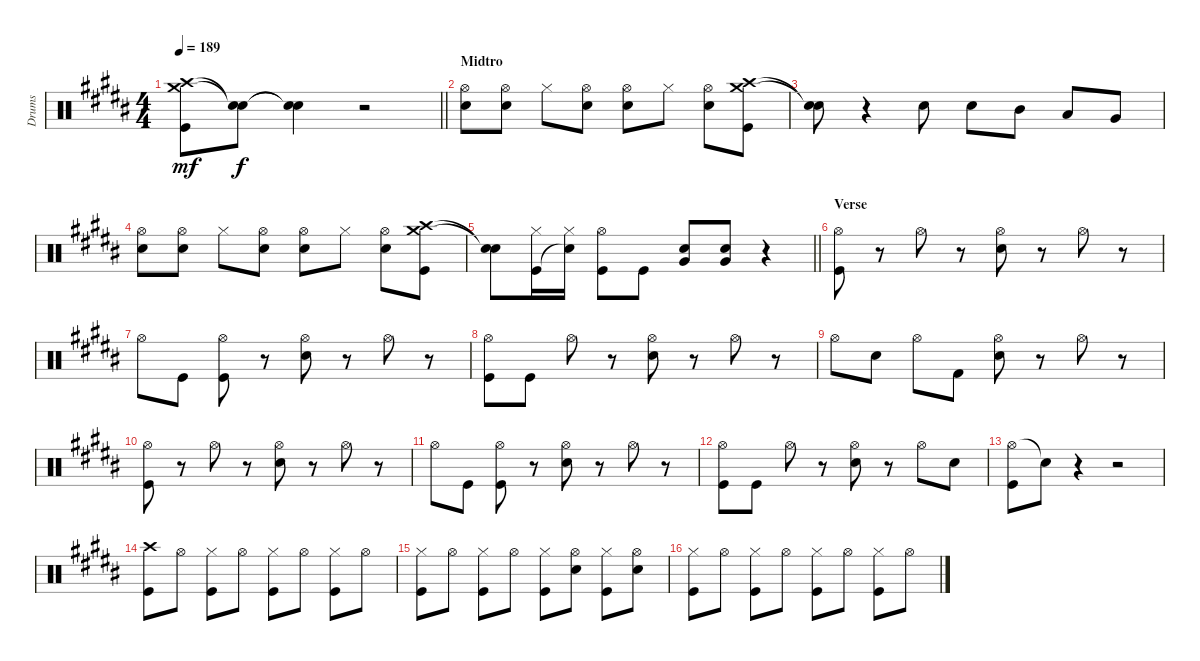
\track ("Drums" "Drums") {instrument percussion}
\staff {score}
\articulation defaults
\ts (4 4)
\tempo 189
\clef neutral
\barLineRight lightlight
\ks b
("Crash high (hit)" "Crash medium (hit)" "Kick (hit)").8{dy mf} ("Snare (hit)"{t} "Snare (hit)"{t}).8{dy f} ("Snare (hit)"{t} "Snare (hit)"{t}).4 r.2 |
\section ("" "Midtro")
("Hi-Hat (open)" "Snare (hit) 2").8 ("Hi-Hat (open)" "Snare (hit) 2").8 "Hi-Hat (closed)".8 ("Hi-Hat (open)" "Snare (hit) 2").8 ("Hi-Hat (open)" "Snare (hit) 2").8 "Hi-Hat (closed)".8 ("Hi-Hat (open)" "Snare (hit) 2").8 ("Crash high (hit)" "Crash medium (hit)" "Kick (hit)").8 |
("Snare (hit)"{t} "Snare (hit)"{t}).8 r.4 "Snare (hit) 2".8 "Snare (hit) 2".8 "Mid Tom (hit)".8 "Low Tom (hit)".8 "Very Low Tom (hit)".8 |
("Hi-Hat (open)" "Snare (hit) 2").8 ("Hi-Hat (open)" "Snare (hit) 2").8 "Hi-Hat (closed)".8 ("Hi-Hat (open)" "Snare (hit) 2").8 ("Hi-Hat (open)" "Snare (hit) 2").8 "Hi-Hat (closed)".8 ("Hi-Hat (open)" "Snare (hit) 2").8 ("Crash high (hit)" "Crash medium (hit)" "Kick (hit)").8 |
\barLineRight lightlight
("Snare (hit)"{t} "Snare (hit)"{t}).8 ("Hi-Hat (closed)" "Kick (hit)").16 ("Hi-Hat (closed)" "Snare (hit)"{t}).16 ("Hi-Hat (open)" "Kick (hit)").8 "Kick (hit)".8 ("Snare (hit) 2" "Very Low Tom (hit)").8 ("Snare (hit) 2" "Very Low Tom (hit)").8 r.4 |
\section ("" "Verse")
("Hi-Hat (open)" "Kick (hit)").8 r.8 "Hi-Hat (open)".8 r.8 ("Hi-Hat (open)" "Snare (hit) 2").8 r.8 "Hi-Hat (open)".8 r.8 |
"Hi-Hat (open)".8 "Kick (hit)".8 ("Hi-Hat (open)" "Kick (hit)").8 r.8 ("Hi-Hat (open)" "Snare (hit) 2").8 r.8 "Hi-Hat (open)".8 r.8 |
("Hi-Hat (open)" "Kick (hit)").8 "Kick (hit)".8 "Hi-Hat (open)".8 r.8 ("Hi-Hat (open)" "Snare (hit) 2").8 r.8 "Hi-Hat (open)".8 r.8 |
"Hi-Hat (open)".8 "Snare (hit) 2".8 "Hi-Hat (open)".8 "Kick (hit) 2".8 ("Hi-Hat (open)" "Snare (hit) 2").8 r.8 "Hi-Hat (open)".8 r.8 |
("Hi-Hat (open)" "Kick (hit)").8 r.8 "Hi-Hat (open)".8 r.8 ("Hi-Hat (open)" "Snare (hit) 2").8 r.8 "Hi-Hat (open)".8 r.8 |
"Hi-Hat (open)".8 "Kick (hit)".8 ("Hi-Hat (open)" "Kick (hit)").8 r.8 ("Hi-Hat (open)" "Snare (hit) 2").8 r.8 "Hi-Hat (open)".8 r.8 |
("Hi-Hat (open)" "Kick (hit)").8 "Kick (hit)".8 "Hi-Hat (open)".8 r.8 ("Hi-Hat (open)" "Snare (hit) 2").8 r.8 "Hi-Hat (open)".8 "Snare (hit) 2".8 |
("Hi-Hat (open)" "Kick (hit)").8 "Snare (hit)"{t}.8 r.4 r.2 |
("Crash high (hit)" "Kick (hit)").8 "Hi-Hat (open)".8 ("Hi-Hat (closed)" "Kick (hit)").8 "Hi-Hat (open)".8 ("Hi-Hat (closed)" "Kick (hit)").8 "Hi-Hat (open)".8 ("Hi-Hat (closed)" "Kick (hit)").8 "Hi-Hat (open)".8 |
("Hi-Hat (closed)" "Kick (hit)").8 "Hi-Hat (open)".8 ("Hi-Hat (closed)" "Kick (hit)").8 "Hi-Hat (open)".8 ("Hi-Hat (closed)" "Kick (hit)").8 ("Hi-Hat (open)" "Snare (hit) 2").8 ("Hi-Hat (closed)" "Kick (hit)").8 ("Hi-Hat (open)" "Snare (hit) 2").8 |
("Hi-Hat (closed)" "Kick (hit)").8 "Hi-Hat (open)".8 ("Hi-Hat (closed)" "Kick (hit)").8 "Hi-Hat (open)".8 ("Hi-Hat (closed)" "Kick (hit)").8 "Hi-Hat (open)".8 ("Hi-Hat (closed)" "Kick (hit)").8 "Hi-Hat (open)".8
